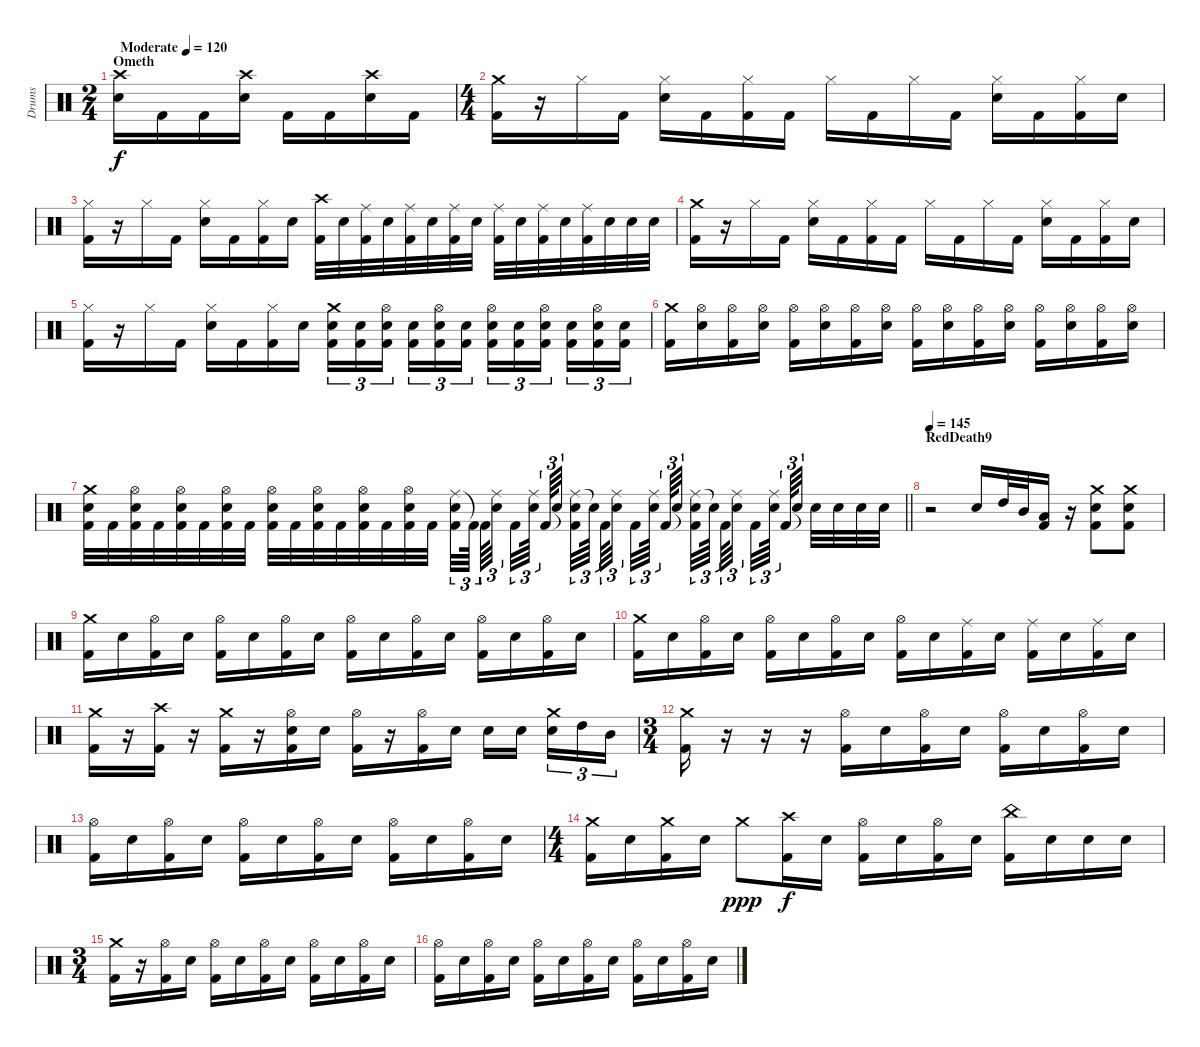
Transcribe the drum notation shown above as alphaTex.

\track ("Drums" "Drums") {instrument percussion}
\staff {score}
\articulation defaults
\ts (2 4)
\section ("" "Ometh")
\tempo (120 "Moderate")
\clef neutral
\ks c
("Crash high (hit)" "Electric Snare (hit)").16{dy f} "Kick (hit) 2".16 "Kick (hit) 2".16 ("Crash high (hit)" "Electric Snare (hit)").16 "Kick (hit) 2".16 "Kick (hit) 2".16 ("Crash high (hit)" "Electric Snare (hit)").16 "Kick (hit) 2".16 |
\ts (4 4)
("Crash medium (hit)" "Kick (hit) 2").16 r.16 "Hi-Hat (closed)".16 "Kick (hit) 2".16 ("Hi-Hat (closed)" "Electric Snare (hit)").16 "Kick (hit) 2".16 ("Hi-Hat (closed)" "Kick (hit) 2").16 "Kick (hit) 2".16 "Hi-Hat (closed)".16 "Kick (hit) 2".16 "Hi-Hat (closed)".16 "Kick (hit) 2".16 ("Hi-Hat (closed)" "Electric Snare (hit)").16 "Kick (hit) 2".16 ("Hi-Hat (closed)" "Kick (hit) 2").16 "Electric Snare (hit)".16 |
("Hi-Hat (closed)" "Kick (hit) 2").16 r.16 "Hi-Hat (closed)".16 "Kick (hit) 2".16 ("Hi-Hat (closed)" "Electric Snare (hit)").16 "Kick (hit) 2".16 ("Hi-Hat (closed)" "Kick (hit) 2").16 "Electric Snare (hit)".16 ("Crash high (hit)" "Kick (hit) 2").32 "Electric Snare (hit)".32 ("Ride (middle)" "Kick (hit) 2").32 "Electric Snare (hit)".32 ("Ride (middle)" "Kick (hit) 2").32 "Electric Snare (hit)".32 ("Ride (middle)" "Kick (hit) 2").32 "Electric Snare (hit)".32 ("Ride (middle)" "Kick (hit) 2").32 "Electric Snare (hit)".32 ("Ride (middle)" "Kick (hit) 2").32 "Electric Snare (hit)".32 ("Ride (middle)" "Kick (hit) 2").32 "Electric Snare (hit)".32 "Electric Snare (hit)".32 "Electric Snare (hit)".32 |
("Crash medium (hit)" "Kick (hit) 2").16 r.16 "Hi-Hat (closed)".16 "Kick (hit) 2".16 ("Hi-Hat (closed)" "Electric Snare (hit)").16 "Kick (hit) 2".16 ("Hi-Hat (closed)" "Kick (hit) 2").16 "Kick (hit) 2".16 "Hi-Hat (closed)".16 "Kick (hit) 2".16 "Hi-Hat (closed)".16 "Kick (hit) 2".16 ("Hi-Hat (closed)" "Electric Snare (hit)").16 "Kick (hit) 2".16 ("Hi-Hat (closed)" "Kick (hit) 2").16 "Electric Snare (hit)".16 |
("Hi-Hat (closed)" "Kick (hit) 2").16 r.16 "Hi-Hat (closed)".16 "Kick (hit) 2".16 ("Hi-Hat (closed)" "Electric Snare (hit)").16 "Kick (hit) 2".16 ("Hi-Hat (closed)" "Kick (hit) 2").16 "Electric Snare (hit)".16 ("Crash medium (hit)" "Electric Snare (hit)" "Kick (hit) 2").16{tu (3 2)} ("Electric Snare (hit)" "Kick (hit) 2").16{tu (3 2)} ("Hi-Hat (open)" "Electric Snare (hit)" "Kick (hit) 2").16{tu (3 2) beam splitsecondary} ("Electric Snare (hit)" "Kick (hit) 2").16{tu (3 2)} ("Hi-Hat (open)" "Electric Snare (hit)" "Kick (hit) 2").16{tu (3 2)} ("Electric Snare (hit)" "Kick (hit) 2").16{tu (3 2)} ("Hi-Hat (open)" "Electric Snare (hit)" "Kick (hit) 2").16{tu (3 2)} ("Electric Snare (hit)" "Kick (hit) 2").16{tu (3 2)} ("Hi-Hat (open)" "Electric Snare (hit)" "Kick (hit) 2").16{tu (3 2) beam splitsecondary} ("Electric Snare (hit)" "Kick (hit) 2").16{tu (3 2)} ("Hi-Hat (open)" "Electric Snare (hit)" "Kick (hit) 2").16{tu (3 2)} ("Electric Snare (hit)" "Kick (hit) 2").16{tu (3 2)} |
("Crash medium (hit)" "Kick (hit) 2").16 ("Hi-Hat (open)" "Electric Snare (hit)").16 ("Hi-Hat (open)" "Kick (hit) 2").16 ("Hi-Hat (open)" "Electric Snare (hit)").16 ("Hi-Hat (open)" "Kick (hit) 2").16 ("Hi-Hat (open)" "Electric Snare (hit)").16 ("Hi-Hat (open)" "Kick (hit) 2").16 ("Hi-Hat (open)" "Electric Snare (hit)").16 ("Hi-Hat (open)" "Kick (hit) 2").16 ("Hi-Hat (open)" "Electric Snare (hit)").16 ("Hi-Hat (open)" "Kick (hit) 2").16 ("Hi-Hat (open)" "Electric Snare (hit)").16 ("Hi-Hat (open)" "Kick (hit) 2").16 ("Hi-Hat (open)" "Electric Snare (hit)").16 ("Hi-Hat (open)" "Kick (hit) 2").16 ("Hi-Hat (open)" "Electric Snare (hit)").16 |
\barLineRight lightlight
("Crash medium (hit)" "Electric Snare (hit)" "Kick (hit) 2").32 "Kick (hit) 2".32 ("Hi-Hat (open)" "Electric Snare (hit)" "Kick (hit) 2").32 "Kick (hit) 2".32 ("Hi-Hat (open)" "Electric Snare (hit)" "Kick (hit) 2").32 "Kick (hit) 2".32 ("Hi-Hat (open)" "Electric Snare (hit)" "Kick (hit) 2").32 "Kick (hit) 2".32 ("Hi-Hat (open)" "Electric Snare (hit)" "Kick (hit) 2").32 "Kick (hit) 2".32 ("Hi-Hat (open)" "Electric Snare (hit)" "Kick (hit) 2").32 "Kick (hit) 2".32 ("Hi-Hat (open)" "Electric Snare (hit)" "Kick (hit) 2").32 "Kick (hit) 2".32 ("Hi-Hat (open)" "Electric Snare (hit)" "Kick (hit) 2").32 "Kick (hit) 2".32 ("Ride (middle)" "Electric Snare (hit)" "Kick (hit) 2").32{tu (3 2)} "Kick (hit) 2"{t}.64{tu (3 2) beam splitsecondary} "Kick (hit) 2".64{tu (3 2)} ("Ride (middle)" "Electric Snare (hit)").32{tu (3 2) beam splitsecondary} "Kick (hit) 2".32{tu (3 2)} ("Ride (middle)" "Electric Snare (hit)").64{tu (3 2) beam splitsecondary} "Kick (hit) 2".64{tu (3 2)} "Snare (hit)"{t}.32{tu (3 2) beam splitsecondary} ("Ride (middle)" "Electric Snare (hit)" "Kick (hit) 2").32{tu (3 2)} "Snare (hit)"{t}.64{tu (3 2) beam splitsecondary} "Kick (hit) 2".64{tu (3 2)} ("Ride (middle)" "Electric Snare (hit)").32{tu (3 2) beam splitsecondary} "Kick (hit) 2".32{tu (3 2)} ("Ride (middle)" "Electric Snare (hit)").64{tu (3 2) beam splitsecondary} "Kick (hit) 2".64{tu (3 2)} "Snare (hit)"{t}.32{tu (3 2)} ("Ride (middle)" "Electric Snare (hit)" "Kick (hit) 2").32{tu (3 2)} "Snare (hit)"{t}.64{tu (3 2) beam splitsecondary} "Kick (hit) 2".64{tu (3 2)} ("Ride (middle)" "Electric Snare (hit)").32{tu (3 2) beam splitsecondary} "Kick (hit) 2".32{tu (3 2)} ("Ride (middle)" "Electric Snare (hit)").64{tu (3 2) beam splitsecondary} "Kick (hit) 2".64{tu (3 2)} "Snare (hit)"{t}.32{tu (3 2) beam splitsecondary} "Electric Snare (hit)".32 "Electric Snare (hit)".32 "Electric Snare (hit)".32 "Electric Snare (hit)".32 |
\section ("" "RedDeath9")
\tempo 145
r.2 "Electric Snare (hit)".16 "High Tom (hit)".32 "Mid Tom (hit)".32 ("Low Tom (hit)" "Kick (hit) 2").16 r.16 ("Crash medium (hit)" "Electric Snare (hit)" "Kick (hit) 2").8 ("Crash medium (hit)" "Electric Snare (hit)" "Kick (hit) 2").8 |
("Crash medium (hit)" "Kick (hit) 2").16 "Electric Snare (hit)".16 ("Hi-Hat (open)" "Kick (hit) 2").16 "Electric Snare (hit)".16 ("Hi-Hat (open)" "Kick (hit) 2").16 "Electric Snare (hit)".16 ("Hi-Hat (open)" "Kick (hit) 2").16 "Electric Snare (hit)".16 ("Hi-Hat (open)" "Kick (hit) 2").16 "Electric Snare (hit)".16 ("Hi-Hat (open)" "Kick (hit) 2").16 "Electric Snare (hit)".16 ("Hi-Hat (open)" "Kick (hit) 2").16 "Electric Snare (hit)".16 ("Hi-Hat (open)" "Kick (hit) 2").16 "Electric Snare (hit)".16 |
("Crash medium (hit)" "Kick (hit) 2").16 "Electric Snare (hit)".16 ("Hi-Hat (open)" "Kick (hit) 2").16 "Electric Snare (hit)".16 ("Hi-Hat (open)" "Kick (hit) 2").16 "Electric Snare (hit)".16 ("Hi-Hat (open)" "Kick (hit) 2").16 "Electric Snare (hit)".16 ("Hi-Hat (open)" "Kick (hit) 2").16 "Electric Snare (hit)".16 ("Ride (middle)" "Kick (hit) 2").16 "Electric Snare (hit)".16 ("Ride (middle)" "Kick (hit) 2").16 "Electric Snare (hit)".16 ("Ride (middle)" "Kick (hit) 2").16 "Electric Snare (hit)".16 |
("Crash medium (hit)" "Kick (hit) 2").16 r.16 ("Crash high (hit)" "Kick (hit) 2").16 r.16 ("Crash medium (hit)" "Kick (hit) 2").16 r.16 ("Hi-Hat (open)" "Electric Snare (hit)" "Kick (hit) 2").16 "Electric Snare (hit)".16 ("Hi-Hat (open)" "Kick (hit) 2").16 r.16 ("Hi-Hat (open)" "Kick (hit) 2").16 "Electric Snare (hit)".16 "Electric Snare (hit)".16 "Electric Snare (hit)".16{beam splitsecondary} ("Crash medium (hit)" "Electric Snare (hit)").16{tu (3 2)} "High Tom (hit)".16{tu (3 2)} "Mid Tom (hit)".16{tu (3 2)} |
\ts (3 4)
("Crash medium (hit)" "Kick (hit) 2").16 r.16 r.16 r.16 ("Hi-Hat (open)" "Kick (hit) 2").16 "Electric Snare (hit)".16 ("Hi-Hat (open)" "Kick (hit) 2").16 "Electric Snare (hit)".16 ("Hi-Hat (open)" "Kick (hit) 2").16 "Electric Snare (hit)".16 ("Hi-Hat (open)" "Kick (hit) 2").16 "Electric Snare (hit)".16 |
("Hi-Hat (open)" "Kick (hit) 2").16 "Electric Snare (hit)".16 ("Hi-Hat (open)" "Kick (hit) 2").16 "Electric Snare (hit)".16 ("Hi-Hat (open)" "Kick (hit) 2").16 "Electric Snare (hit)".16 ("Hi-Hat (open)" "Kick (hit) 2").16 "Electric Snare (hit)".16 ("Hi-Hat (open)" "Kick (hit) 2").16 "Electric Snare (hit)".16 ("Hi-Hat (open)" "Kick (hit) 2").16 "Electric Snare (hit)".16 |
\ts (4 4)
("Crash medium (hit)" "Kick (hit) 2").16 "Electric Snare (hit)".16 ("Crash medium (hit)" "Kick (hit) 2").16 "Electric Snare (hit)".16 "Crash medium (hit)".8{dy ppp} ("Crash high (hit)" "Kick (hit) 2").16{dy f} "Electric Snare (hit)".16 ("Hi-Hat (open)" "Kick (hit) 2").16 "Electric Snare (hit)".16 ("Hi-Hat (open)" "Kick (hit) 2").16 "Electric Snare (hit)".16 ("China (hit)" "Kick (hit) 2").16 "Electric Snare (hit)".16 "Electric Snare (hit)".16 "Electric Snare (hit)".16 |
\ts (3 4)
("Crash medium (hit)" "Kick (hit) 2").16 r.16 ("Hi-Hat (open)" "Kick (hit) 2").16 "Electric Snare (hit)".16 ("Hi-Hat (open)" "Kick (hit) 2").16 "Electric Snare (hit)".16 ("Hi-Hat (open)" "Kick (hit) 2").16 "Electric Snare (hit)".16 ("Hi-Hat (open)" "Kick (hit) 2").16 "Electric Snare (hit)".16 ("Hi-Hat (open)" "Kick (hit) 2").16 "Electric Snare (hit)".16 |
("Hi-Hat (open)" "Kick (hit) 2").16 "Electric Snare (hit)".16 ("Hi-Hat (open)" "Kick (hit) 2").16 "Electric Snare (hit)".16 ("Hi-Hat (open)" "Kick (hit) 2").16 "Electric Snare (hit)".16 ("Hi-Hat (open)" "Kick (hit) 2").16 "Electric Snare (hit)".16 ("Hi-Hat (open)" "Kick (hit) 2").16 "Electric Snare (hit)".16 ("Hi-Hat (open)" "Kick (hit) 2").16 "Electric Snare (hit)".16
